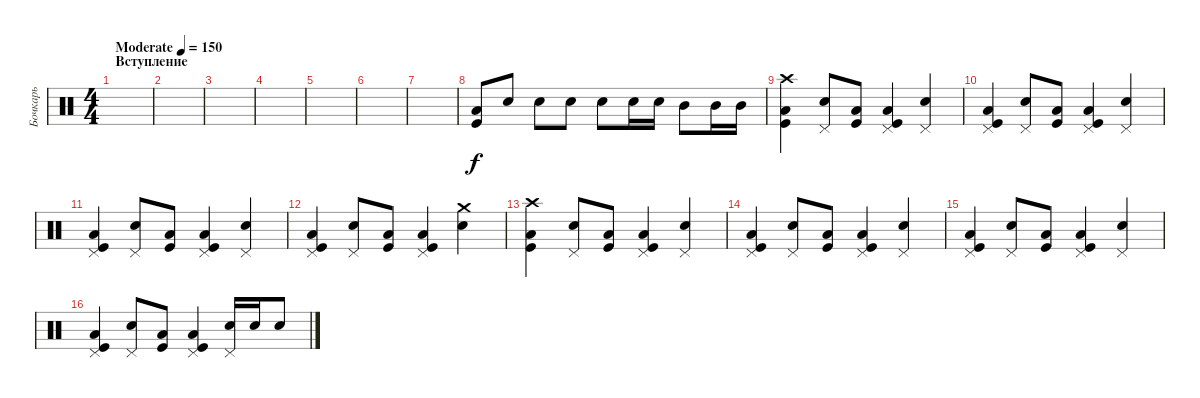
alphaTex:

\track ("Бочкарь" "Бочкарь") {instrument percussion}
\staff {score}
\articulation defaults
\ts (4 4)
\section ("" "Вступление")
\tempo (150 "Moderate")
\clef neutral
\ks c
|
|
|
|
|
|
|
("Low Tom (hit)" "Kick (hit)").8 "Electric Snare (hit)".8 "Snare (hit) 2".8 "Snare (hit) 2".8 "Electric Snare (hit)".8 "Electric Snare (hit)".16 "Electric Snare (hit)".16 "Mid Tom (hit)".8 "Mid Tom (hit)".16 "Mid Tom (hit)".16 |
("Crash high (hit)" "Low Tom (hit)" "Kick (hit)").4 ("Pedal Hi-Hat (hit)" "Electric Snare (hit)").8 ("Low Tom (hit)" "Kick (hit)").8 ("Pedal Hi-Hat (hit)" "Low Tom (hit)" "Kick (hit)").4 ("Pedal Hi-Hat (hit)" "Electric Snare (hit)").4 |
("Pedal Hi-Hat (hit)" "Low Tom (hit)" "Kick (hit)").4 ("Pedal Hi-Hat (hit)" "Electric Snare (hit)").8 ("Low Tom (hit)" "Kick (hit)").8 ("Pedal Hi-Hat (hit)" "Low Tom (hit)" "Kick (hit)").4 ("Pedal Hi-Hat (hit)" "Electric Snare (hit)").4 |
("Pedal Hi-Hat (hit)" "Low Tom (hit)" "Kick (hit)").4 ("Pedal Hi-Hat (hit)" "Electric Snare (hit)").8 ("Low Tom (hit)" "Kick (hit)").8 ("Pedal Hi-Hat (hit)" "Low Tom (hit)" "Kick (hit)").4 ("Pedal Hi-Hat (hit)" "Electric Snare (hit)").4 |
("Pedal Hi-Hat (hit)" "Low Tom (hit)" "Kick (hit)").4 ("Pedal Hi-Hat (hit)" "Electric Snare (hit)").8 ("Low Tom (hit)" "Kick (hit)").8 ("Pedal Hi-Hat (hit)" "Low Tom (hit)" "Kick (hit)").4 ("Crash medium (hit)" "Electric Snare (hit)").4 |
("Crash high (hit)" "Low Tom (hit)" "Kick (hit)").4 ("Pedal Hi-Hat (hit)" "Electric Snare (hit)").8 ("Low Tom (hit)" "Kick (hit)").8 ("Pedal Hi-Hat (hit)" "Low Tom (hit)" "Kick (hit)").4 ("Pedal Hi-Hat (hit)" "Electric Snare (hit)").4 |
("Pedal Hi-Hat (hit)" "Low Tom (hit)" "Kick (hit)").4 ("Pedal Hi-Hat (hit)" "Electric Snare (hit)").8 ("Low Tom (hit)" "Kick (hit)").8 ("Pedal Hi-Hat (hit)" "Low Tom (hit)" "Kick (hit)").4 ("Pedal Hi-Hat (hit)" "Electric Snare (hit)").4 |
("Pedal Hi-Hat (hit)" "Low Tom (hit)" "Kick (hit)").4 ("Pedal Hi-Hat (hit)" "Electric Snare (hit)").8 ("Low Tom (hit)" "Kick (hit)").8 ("Pedal Hi-Hat (hit)" "Low Tom (hit)" "Kick (hit)").4 ("Pedal Hi-Hat (hit)" "Electric Snare (hit)").4 |
("Pedal Hi-Hat (hit)" "Low Tom (hit)" "Kick (hit)").4 ("Pedal Hi-Hat (hit)" "Electric Snare (hit)").8 ("Low Tom (hit)" "Kick (hit)").8 ("Pedal Hi-Hat (hit)" "Low Tom (hit)" "Kick (hit)").4 ("Pedal Hi-Hat (hit)" "Snare (hit) 2").16 "Snare (hit) 2".16 "Electric Snare (hit)".8
